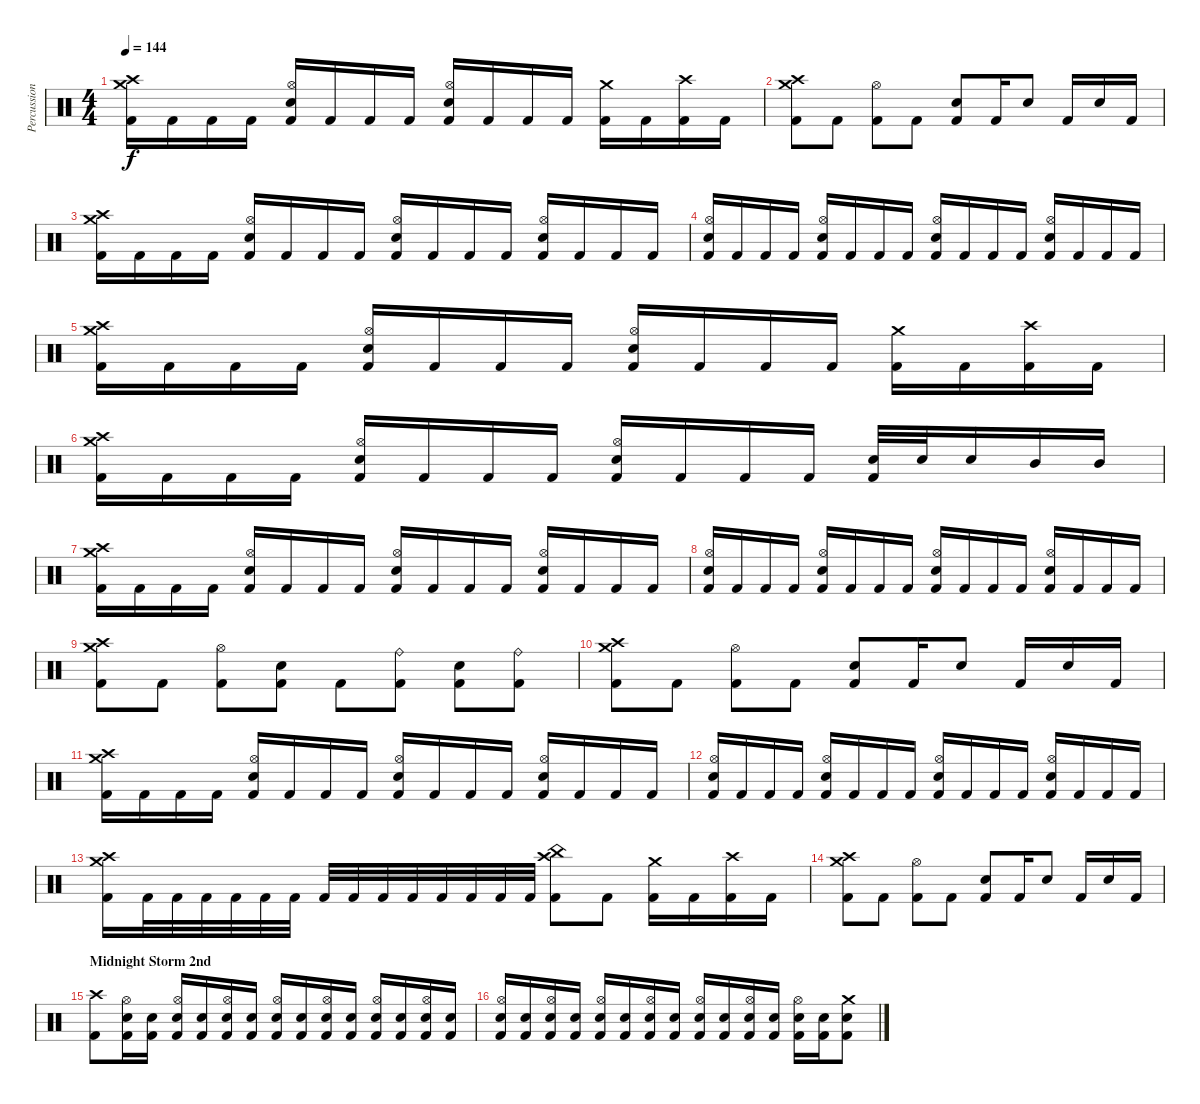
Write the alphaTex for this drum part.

\track ("Percussion" "Percussion") {instrument percussion}
\staff {score}
\articulation defaults
\ts (4 4)
\tempo 144
\clef neutral
\ks c
("Crash medium (hit)" "Crash high (hit)" "Kick (hit) 2").16{dy f} "Kick (hit) 2".16 "Kick (hit) 2".16 "Kick (hit) 2".16 ("Hi-Hat (open)" "Electric Snare (hit)" "Kick (hit) 2").16 "Kick (hit) 2".16 "Kick (hit) 2".16 "Kick (hit) 2".16 ("Hi-Hat (open)" "Electric Snare (hit)" "Kick (hit) 2").16 "Kick (hit) 2".16 "Kick (hit) 2".16 "Kick (hit) 2".16 ("Crash medium (hit)" "Kick (hit) 2").16 "Kick (hit) 2".16 ("Crash high (hit)" "Kick (hit) 2").16 "Kick (hit) 2".16 |
("Crash medium (hit)" "Crash high (hit)" "Kick (hit) 2").8 "Kick (hit) 2".8 ("Hi-Hat (open)" "Kick (hit) 2").8 "Kick (hit) 2".8 ("Electric Snare (hit)" "Kick (hit) 2").8 "Kick (hit) 2".16 "Electric Snare (hit)".8 "Kick (hit) 2".16 "Electric Snare (hit)".16 "Kick (hit) 2".16 |
("Crash medium (hit)" "Crash high (hit)" "Kick (hit) 2").16 "Kick (hit) 2".16 "Kick (hit) 2".16 "Kick (hit) 2".16 ("Hi-Hat (open)" "Electric Snare (hit)" "Kick (hit) 2").16 "Kick (hit) 2".16 "Kick (hit) 2".16 "Kick (hit) 2".16 ("Hi-Hat (open)" "Electric Snare (hit)" "Kick (hit) 2").16 "Kick (hit) 2".16 "Kick (hit) 2".16 "Kick (hit) 2".16 ("Hi-Hat (open)" "Electric Snare (hit)" "Kick (hit) 2").16 "Kick (hit) 2".16 "Kick (hit) 2".16 "Kick (hit) 2".16 |
("Hi-Hat (open)" "Electric Snare (hit)" "Kick (hit) 2").16 "Kick (hit) 2".16 "Kick (hit) 2".16 "Kick (hit) 2".16 ("Hi-Hat (open)" "Electric Snare (hit)" "Kick (hit) 2").16 "Kick (hit) 2".16 "Kick (hit) 2".16 "Kick (hit) 2".16 ("Hi-Hat (open)" "Electric Snare (hit)" "Kick (hit) 2").16 "Kick (hit) 2".16 "Kick (hit) 2".16 "Kick (hit) 2".16 ("Hi-Hat (open)" "Electric Snare (hit)" "Kick (hit) 2").16 "Kick (hit) 2".16 "Kick (hit) 2".16 "Kick (hit) 2".16 |
("Crash medium (hit)" "Crash high (hit)" "Kick (hit) 2").16 "Kick (hit) 2".16 "Kick (hit) 2".16 "Kick (hit) 2".16 ("Hi-Hat (open)" "Electric Snare (hit)" "Kick (hit) 2").16 "Kick (hit) 2".16 "Kick (hit) 2".16 "Kick (hit) 2".16 ("Hi-Hat (open)" "Electric Snare (hit)" "Kick (hit) 2").16 "Kick (hit) 2".16 "Kick (hit) 2".16 "Kick (hit) 2".16 ("Crash medium (hit)" "Kick (hit) 2").16 "Kick (hit) 2".16 ("Crash high (hit)" "Kick (hit) 2").16 "Kick (hit) 2".16 |
("Crash medium (hit)" "Crash high (hit)" "Kick (hit) 2").16 "Kick (hit) 2".16 "Kick (hit) 2".16 "Kick (hit) 2".16 ("Hi-Hat (open)" "Electric Snare (hit)" "Kick (hit) 2").16 "Kick (hit) 2".16 "Kick (hit) 2".16 "Kick (hit) 2".16 ("Hi-Hat (open)" "Electric Snare (hit)" "Kick (hit) 2").16 "Kick (hit) 2".16 "Kick (hit) 2".16 "Kick (hit) 2".16 ("Electric Snare (hit)" "Kick (hit) 2").32 "Electric Snare (hit)".32 "Electric Snare (hit)".16 "Mid Tom (hit)".16 "Mid Tom (hit)".16 |
("Crash medium (hit)" "Crash high (hit)" "Kick (hit) 2").16 "Kick (hit) 2".16 "Kick (hit) 2".16 "Kick (hit) 2".16 ("Hi-Hat (open)" "Electric Snare (hit)" "Kick (hit) 2").16 "Kick (hit) 2".16 "Kick (hit) 2".16 "Kick (hit) 2".16 ("Hi-Hat (open)" "Electric Snare (hit)" "Kick (hit) 2").16 "Kick (hit) 2".16 "Kick (hit) 2".16 "Kick (hit) 2".16 ("Hi-Hat (open)" "Electric Snare (hit)" "Kick (hit) 2").16 "Kick (hit) 2".16 "Kick (hit) 2".16 "Kick (hit) 2".16 |
("Hi-Hat (open)" "Electric Snare (hit)" "Kick (hit) 2").16 "Kick (hit) 2".16 "Kick (hit) 2".16 "Kick (hit) 2".16 ("Hi-Hat (open)" "Electric Snare (hit)" "Kick (hit) 2").16 "Kick (hit) 2".16 "Kick (hit) 2".16 "Kick (hit) 2".16 ("Hi-Hat (open)" "Electric Snare (hit)" "Kick (hit) 2").16 "Kick (hit) 2".16 "Kick (hit) 2".16 "Kick (hit) 2".16 ("Hi-Hat (open)" "Electric Snare (hit)" "Kick (hit) 2").16 "Kick (hit) 2".16 "Kick (hit) 2".16 "Kick (hit) 2".16 |
("Crash medium (hit)" "Crash high (hit)" "Kick (hit) 2").8 "Kick (hit) 2".8 ("Hi-Hat (open)" "Kick (hit) 2").8 ("Electric Snare (hit)" "Kick (hit) 2").8 "Kick (hit) 2".8 ("Ride (bell)" "Kick (hit) 2").8 ("Electric Snare (hit)" "Kick (hit) 2").8 ("Ride (bell)" "Kick (hit) 2").8 |
("Crash medium (hit)" "Crash high (hit)" "Kick (hit) 2").8 "Kick (hit) 2".8 ("Hi-Hat (open)" "Kick (hit) 2").8 "Kick (hit) 2".8 ("Electric Snare (hit)" "Kick (hit) 2").8 "Kick (hit) 2".16 "Electric Snare (hit)".8 "Kick (hit) 2".16 "Electric Snare (hit)".16 "Kick (hit) 2".16 |
("Crash medium (hit)" "Crash high (hit)" "Kick (hit) 2").16 "Kick (hit) 2".16 "Kick (hit) 2".16 "Kick (hit) 2".16 ("Hi-Hat (open)" "Electric Snare (hit)" "Kick (hit) 2").16 "Kick (hit) 2".16 "Kick (hit) 2".16 "Kick (hit) 2".16 ("Hi-Hat (open)" "Electric Snare (hit)" "Kick (hit) 2").16 "Kick (hit) 2".16 "Kick (hit) 2".16 "Kick (hit) 2".16 ("Hi-Hat (open)" "Electric Snare (hit)" "Kick (hit) 2").16 "Kick (hit) 2".16 "Kick (hit) 2".16 "Kick (hit) 2".16 |
("Hi-Hat (open)" "Electric Snare (hit)" "Kick (hit) 2").16 "Kick (hit) 2".16 "Kick (hit) 2".16 "Kick (hit) 2".16 ("Hi-Hat (open)" "Electric Snare (hit)" "Kick (hit) 2").16 "Kick (hit) 2".16 "Kick (hit) 2".16 "Kick (hit) 2".16 ("Hi-Hat (open)" "Electric Snare (hit)" "Kick (hit) 2").16 "Kick (hit) 2".16 "Kick (hit) 2".16 "Kick (hit) 2".16 ("Hi-Hat (open)" "Electric Snare (hit)" "Kick (hit) 2").16 "Kick (hit) 2".16 "Kick (hit) 2".16 "Kick (hit) 2".16 |
("Crash medium (hit)" "Crash high (hit)" "Kick (hit) 2").16 "Kick (hit) 2".32 "Kick (hit) 2".32 "Kick (hit) 2".32 "Kick (hit) 2".32 "Kick (hit) 2".32 "Kick (hit) 2".32 "Kick (hit) 2".32 "Kick (hit) 2".32 "Kick (hit) 2".32 "Kick (hit) 2".32 "Kick (hit) 2".32 "Kick (hit) 2".32 "Kick (hit) 2".32 "Kick (hit) 2".32 ("Crash high (hit)" "China (hit)" "Kick (hit) 2").8 "Kick (hit) 2".8 ("Crash medium (hit)" "Kick (hit) 2").16 "Kick (hit) 2".16 ("Crash high (hit)" "Kick (hit) 2").16 "Kick (hit) 2".16 |
("Crash medium (hit)" "Crash high (hit)" "Kick (hit) 2").8 "Kick (hit) 2".8 ("Hi-Hat (open)" "Kick (hit) 2").8 "Kick (hit) 2".8 ("Electric Snare (hit)" "Kick (hit) 2").8 "Kick (hit) 2".16 "Electric Snare (hit)".8 "Kick (hit) 2".16 "Electric Snare (hit)".16 "Kick (hit) 2".16 |
\section ("" "Midnight Storm 2nd")
("Crash high (hit)" "Kick (hit) 2").8 ("Hi-Hat (open)" "Electric Snare (hit)" "Kick (hit) 2").16 ("Electric Snare (hit)" "Kick (hit) 2").16 ("Hi-Hat (open)" "Electric Snare (hit)" "Kick (hit) 2").16 ("Electric Snare (hit)" "Kick (hit) 2").16 ("Hi-Hat (open)" "Electric Snare (hit)" "Kick (hit) 2").16 ("Electric Snare (hit)" "Kick (hit) 2").16 ("Hi-Hat (open)" "Electric Snare (hit)" "Kick (hit) 2").16 ("Electric Snare (hit)" "Kick (hit) 2").16 ("Hi-Hat (open)" "Electric Snare (hit)" "Kick (hit) 2").16 ("Electric Snare (hit)" "Kick (hit) 2").16 ("Hi-Hat (open)" "Electric Snare (hit)" "Kick (hit) 2").16 ("Electric Snare (hit)" "Kick (hit) 2").16 ("Hi-Hat (open)" "Electric Snare (hit)" "Kick (hit) 2").16 ("Electric Snare (hit)" "Kick (hit) 2").16 |
("Hi-Hat (open)" "Electric Snare (hit)" "Kick (hit) 2").16 ("Electric Snare (hit)" "Kick (hit) 2").16 ("Hi-Hat (open)" "Electric Snare (hit)" "Kick (hit) 2").16 ("Electric Snare (hit)" "Kick (hit) 2").16 ("Hi-Hat (open)" "Electric Snare (hit)" "Kick (hit) 2").16 ("Electric Snare (hit)" "Kick (hit) 2").16 ("Hi-Hat (open)" "Electric Snare (hit)" "Kick (hit) 2").16 ("Electric Snare (hit)" "Kick (hit) 2").16 ("Hi-Hat (open)" "Electric Snare (hit)" "Kick (hit) 2").16 ("Electric Snare (hit)" "Kick (hit) 2").16 ("Hi-Hat (open)" "Electric Snare (hit)" "Kick (hit) 2").16 ("Electric Snare (hit)" "Kick (hit) 2").16 ("Hi-Hat (open)" "Electric Snare (hit)" "Kick (hit) 2").16 ("Electric Snare (hit)" "Kick (hit) 2").16 ("Crash medium (hit)" "Electric Snare (hit)" "Kick (hit) 2").8
